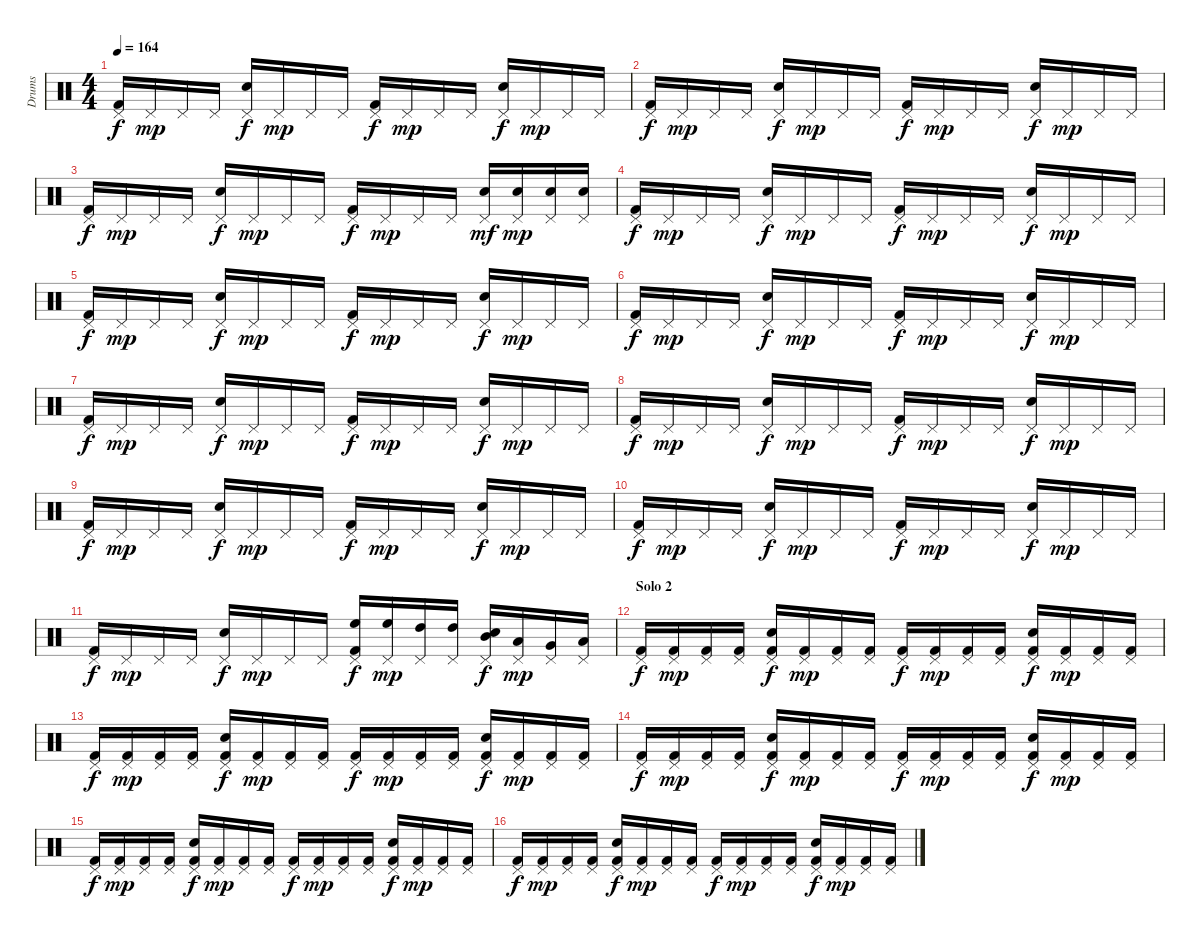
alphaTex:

\track ("Drums" "Drums") {instrument percussion}
\staff {score}
\articulation defaults
\ts (4 4)
\tempo 164
\clef neutral
\ks c
("Pedal Hi-Hat (hit)" "Kick (hit) 2").16{dy f} "Pedal Hi-Hat (hit)".16{dy mp} "Pedal Hi-Hat (hit)".16 "Pedal Hi-Hat (hit)".16 ("Pedal Hi-Hat (hit)" "Snare (hit) 2").16{dy f} "Pedal Hi-Hat (hit)".16{dy mp} "Pedal Hi-Hat (hit)".16 "Pedal Hi-Hat (hit)".16 ("Pedal Hi-Hat (hit)" "Kick (hit) 2").16{dy f} "Pedal Hi-Hat (hit)".16{dy mp} "Pedal Hi-Hat (hit)".16 "Pedal Hi-Hat (hit)".16 ("Pedal Hi-Hat (hit)" "Snare (hit) 2").16{dy f} "Pedal Hi-Hat (hit)".16{dy mp} "Pedal Hi-Hat (hit)".16 "Pedal Hi-Hat (hit)".16 |
("Pedal Hi-Hat (hit)" "Kick (hit) 2").16{dy f} "Pedal Hi-Hat (hit)".16{dy mp} "Pedal Hi-Hat (hit)".16 "Pedal Hi-Hat (hit)".16 ("Pedal Hi-Hat (hit)" "Snare (hit) 2").16{dy f} "Pedal Hi-Hat (hit)".16{dy mp} "Pedal Hi-Hat (hit)".16 "Pedal Hi-Hat (hit)".16 ("Pedal Hi-Hat (hit)" "Kick (hit) 2").16{dy f} "Pedal Hi-Hat (hit)".16{dy mp} "Pedal Hi-Hat (hit)".16 "Pedal Hi-Hat (hit)".16 ("Pedal Hi-Hat (hit)" "Snare (hit) 2").16{dy f} "Pedal Hi-Hat (hit)".16{dy mp} "Pedal Hi-Hat (hit)".16 "Pedal Hi-Hat (hit)".16 |
("Pedal Hi-Hat (hit)" "Kick (hit) 2").16{dy f} "Pedal Hi-Hat (hit)".16{dy mp} "Pedal Hi-Hat (hit)".16 "Pedal Hi-Hat (hit)".16 ("Pedal Hi-Hat (hit)" "Snare (hit) 2").16{dy f} "Pedal Hi-Hat (hit)".16{dy mp} "Pedal Hi-Hat (hit)".16 "Pedal Hi-Hat (hit)".16 ("Pedal Hi-Hat (hit)" "Kick (hit) 2").16{dy f} "Pedal Hi-Hat (hit)".16{dy mp} "Pedal Hi-Hat (hit)".16 "Pedal Hi-Hat (hit)".16 ("Pedal Hi-Hat (hit)" "Snare (hit) 2").16{dy mf} ("Pedal Hi-Hat (hit)" "Snare (hit) 2").16{dy mp} ("Pedal Hi-Hat (hit)" "Snare (hit) 2").16 ("Pedal Hi-Hat (hit)" "Snare (hit) 2").16 |
("Pedal Hi-Hat (hit)" "Kick (hit) 2").16{dy f} "Pedal Hi-Hat (hit)".16{dy mp} "Pedal Hi-Hat (hit)".16 "Pedal Hi-Hat (hit)".16 ("Pedal Hi-Hat (hit)" "Snare (hit) 2").16{dy f} "Pedal Hi-Hat (hit)".16{dy mp} "Pedal Hi-Hat (hit)".16 "Pedal Hi-Hat (hit)".16 ("Pedal Hi-Hat (hit)" "Kick (hit) 2").16{dy f} "Pedal Hi-Hat (hit)".16{dy mp} "Pedal Hi-Hat (hit)".16 "Pedal Hi-Hat (hit)".16 ("Pedal Hi-Hat (hit)" "Snare (hit) 2").16{dy f} "Pedal Hi-Hat (hit)".16{dy mp} "Pedal Hi-Hat (hit)".16 "Pedal Hi-Hat (hit)".16 |
("Pedal Hi-Hat (hit)" "Kick (hit) 2").16{dy f} "Pedal Hi-Hat (hit)".16{dy mp} "Pedal Hi-Hat (hit)".16 "Pedal Hi-Hat (hit)".16 ("Pedal Hi-Hat (hit)" "Snare (hit) 2").16{dy f} "Pedal Hi-Hat (hit)".16{dy mp} "Pedal Hi-Hat (hit)".16 "Pedal Hi-Hat (hit)".16 ("Pedal Hi-Hat (hit)" "Kick (hit) 2").16{dy f} "Pedal Hi-Hat (hit)".16{dy mp} "Pedal Hi-Hat (hit)".16 "Pedal Hi-Hat (hit)".16 ("Pedal Hi-Hat (hit)" "Snare (hit) 2").16{dy f} "Pedal Hi-Hat (hit)".16{dy mp} "Pedal Hi-Hat (hit)".16 "Pedal Hi-Hat (hit)".16 |
("Pedal Hi-Hat (hit)" "Kick (hit) 2").16{dy f} "Pedal Hi-Hat (hit)".16{dy mp} "Pedal Hi-Hat (hit)".16 "Pedal Hi-Hat (hit)".16 ("Pedal Hi-Hat (hit)" "Snare (hit) 2").16{dy f} "Pedal Hi-Hat (hit)".16{dy mp} "Pedal Hi-Hat (hit)".16 "Pedal Hi-Hat (hit)".16 ("Pedal Hi-Hat (hit)" "Kick (hit) 2").16{dy f} "Pedal Hi-Hat (hit)".16{dy mp} "Pedal Hi-Hat (hit)".16 "Pedal Hi-Hat (hit)".16 ("Pedal Hi-Hat (hit)" "Snare (hit) 2").16{dy f} "Pedal Hi-Hat (hit)".16{dy mp} "Pedal Hi-Hat (hit)".16 "Pedal Hi-Hat (hit)".16 |
("Pedal Hi-Hat (hit)" "Kick (hit) 2").16{dy f} "Pedal Hi-Hat (hit)".16{dy mp} "Pedal Hi-Hat (hit)".16 "Pedal Hi-Hat (hit)".16 ("Pedal Hi-Hat (hit)" "Snare (hit) 2").16{dy f} "Pedal Hi-Hat (hit)".16{dy mp} "Pedal Hi-Hat (hit)".16 "Pedal Hi-Hat (hit)".16 ("Pedal Hi-Hat (hit)" "Kick (hit) 2").16{dy f} "Pedal Hi-Hat (hit)".16{dy mp} "Pedal Hi-Hat (hit)".16 "Pedal Hi-Hat (hit)".16 ("Pedal Hi-Hat (hit)" "Snare (hit) 2").16{dy f} "Pedal Hi-Hat (hit)".16{dy mp} "Pedal Hi-Hat (hit)".16 "Pedal Hi-Hat (hit)".16 |
("Pedal Hi-Hat (hit)" "Kick (hit) 2").16{dy f} "Pedal Hi-Hat (hit)".16{dy mp} "Pedal Hi-Hat (hit)".16 "Pedal Hi-Hat (hit)".16 ("Pedal Hi-Hat (hit)" "Snare (hit) 2").16{dy f} "Pedal Hi-Hat (hit)".16{dy mp} "Pedal Hi-Hat (hit)".16 "Pedal Hi-Hat (hit)".16 ("Pedal Hi-Hat (hit)" "Kick (hit) 2").16{dy f} "Pedal Hi-Hat (hit)".16{dy mp} "Pedal Hi-Hat (hit)".16 "Pedal Hi-Hat (hit)".16 ("Pedal Hi-Hat (hit)" "Snare (hit) 2").16{dy f} "Pedal Hi-Hat (hit)".16{dy mp} "Pedal Hi-Hat (hit)".16 "Pedal Hi-Hat (hit)".16 |
("Pedal Hi-Hat (hit)" "Kick (hit) 2").16{dy f} "Pedal Hi-Hat (hit)".16{dy mp} "Pedal Hi-Hat (hit)".16 "Pedal Hi-Hat (hit)".16 ("Pedal Hi-Hat (hit)" "Snare (hit) 2").16{dy f} "Pedal Hi-Hat (hit)".16{dy mp} "Pedal Hi-Hat (hit)".16 "Pedal Hi-Hat (hit)".16 ("Pedal Hi-Hat (hit)" "Kick (hit) 2").16{dy f} "Pedal Hi-Hat (hit)".16{dy mp} "Pedal Hi-Hat (hit)".16 "Pedal Hi-Hat (hit)".16 ("Pedal Hi-Hat (hit)" "Snare (hit) 2").16{dy f} "Pedal Hi-Hat (hit)".16{dy mp} "Pedal Hi-Hat (hit)".16 "Pedal Hi-Hat (hit)".16 |
("Pedal Hi-Hat (hit)" "Kick (hit) 2").16{dy f} "Pedal Hi-Hat (hit)".16{dy mp} "Pedal Hi-Hat (hit)".16 "Pedal Hi-Hat (hit)".16 ("Pedal Hi-Hat (hit)" "Snare (hit) 2").16{dy f} "Pedal Hi-Hat (hit)".16{dy mp} "Pedal Hi-Hat (hit)".16 "Pedal Hi-Hat (hit)".16 ("Pedal Hi-Hat (hit)" "Kick (hit) 2").16{dy f} "Pedal Hi-Hat (hit)".16{dy mp} "Pedal Hi-Hat (hit)".16 "Pedal Hi-Hat (hit)".16 ("Pedal Hi-Hat (hit)" "Snare (hit) 2").16{dy f} "Pedal Hi-Hat (hit)".16{dy mp} "Pedal Hi-Hat (hit)".16 "Pedal Hi-Hat (hit)".16 |
("Pedal Hi-Hat (hit)" "Kick (hit) 2").16{dy f} "Pedal Hi-Hat (hit)".16{dy mp} "Pedal Hi-Hat (hit)".16 "Pedal Hi-Hat (hit)".16 ("Pedal Hi-Hat (hit)" "Snare (hit) 2").16{dy f} "Pedal Hi-Hat (hit)".16{dy mp} "Pedal Hi-Hat (hit)".16 "Pedal Hi-Hat (hit)".16 ("Pedal Hi-Hat (hit)" "High Floor Tom (hit)" "Kick (hit) 2").16{dy f} ("Pedal Hi-Hat (hit)" "High Floor Tom (hit)").16{dy mp} ("Pedal Hi-Hat (hit)" "High Tom (hit)").16 ("Pedal Hi-Hat (hit)" "High Tom (hit)").16 ("Pedal Hi-Hat (hit)" "Mid Tom (hit)" "Snare (hit) 2").16{dy f} ("Pedal Hi-Hat (hit)" "Low Tom (hit)").16{dy mp} ("Pedal Hi-Hat (hit)" "Very Low Tom (hit)").16 ("Pedal Hi-Hat (hit)" "Low Floor Tom (hit)").16 |
\section ("" "Solo 2")
("Pedal Hi-Hat (hit)" "Kick (hit) 2").16{dy f} ("Pedal Hi-Hat (hit)" "Kick (hit) 2").16{dy mp} ("Pedal Hi-Hat (hit)" "Kick (hit) 2").16 ("Pedal Hi-Hat (hit)" "Kick (hit) 2").16 ("Pedal Hi-Hat (hit)" "Snare (hit) 2" "Kick (hit) 2").16{dy f} ("Pedal Hi-Hat (hit)" "Kick (hit) 2").16{dy mp} ("Pedal Hi-Hat (hit)" "Kick (hit) 2").16 ("Pedal Hi-Hat (hit)" "Kick (hit) 2").16 ("Pedal Hi-Hat (hit)" "Kick (hit) 2").16{dy f} ("Pedal Hi-Hat (hit)" "Kick (hit) 2").16{dy mp} ("Pedal Hi-Hat (hit)" "Kick (hit) 2").16 ("Pedal Hi-Hat (hit)" "Kick (hit) 2").16 ("Pedal Hi-Hat (hit)" "Snare (hit) 2" "Kick (hit) 2").16{dy f} ("Pedal Hi-Hat (hit)" "Kick (hit) 2").16{dy mp} ("Pedal Hi-Hat (hit)" "Kick (hit) 2").16 ("Pedal Hi-Hat (hit)" "Kick (hit) 2").16 |
("Pedal Hi-Hat (hit)" "Kick (hit) 2").16{dy f} ("Pedal Hi-Hat (hit)" "Kick (hit) 2").16{dy mp} ("Pedal Hi-Hat (hit)" "Kick (hit) 2").16 ("Pedal Hi-Hat (hit)" "Kick (hit) 2").16 ("Pedal Hi-Hat (hit)" "Snare (hit) 2" "Kick (hit) 2").16{dy f} ("Pedal Hi-Hat (hit)" "Kick (hit) 2").16{dy mp} ("Pedal Hi-Hat (hit)" "Kick (hit) 2").16 ("Pedal Hi-Hat (hit)" "Kick (hit) 2").16 ("Pedal Hi-Hat (hit)" "Kick (hit) 2").16{dy f} ("Pedal Hi-Hat (hit)" "Kick (hit) 2").16{dy mp} ("Pedal Hi-Hat (hit)" "Kick (hit) 2").16 ("Pedal Hi-Hat (hit)" "Kick (hit) 2").16 ("Pedal Hi-Hat (hit)" "Snare (hit) 2" "Kick (hit) 2").16{dy f} ("Pedal Hi-Hat (hit)" "Kick (hit) 2").16{dy mp} ("Pedal Hi-Hat (hit)" "Kick (hit) 2").16 ("Pedal Hi-Hat (hit)" "Kick (hit) 2").16 |
("Pedal Hi-Hat (hit)" "Kick (hit) 2").16{dy f} ("Pedal Hi-Hat (hit)" "Kick (hit) 2").16{dy mp} ("Pedal Hi-Hat (hit)" "Kick (hit) 2").16 ("Pedal Hi-Hat (hit)" "Kick (hit) 2").16 ("Pedal Hi-Hat (hit)" "Snare (hit) 2" "Kick (hit) 2").16{dy f} ("Pedal Hi-Hat (hit)" "Kick (hit) 2").16{dy mp} ("Pedal Hi-Hat (hit)" "Kick (hit) 2").16 ("Pedal Hi-Hat (hit)" "Kick (hit) 2").16 ("Pedal Hi-Hat (hit)" "Kick (hit) 2").16{dy f} ("Pedal Hi-Hat (hit)" "Kick (hit) 2").16{dy mp} ("Pedal Hi-Hat (hit)" "Kick (hit) 2").16 ("Pedal Hi-Hat (hit)" "Kick (hit) 2").16 ("Pedal Hi-Hat (hit)" "Snare (hit) 2" "Kick (hit) 2").16{dy f} ("Pedal Hi-Hat (hit)" "Kick (hit) 2").16{dy mp} ("Pedal Hi-Hat (hit)" "Kick (hit) 2").16 ("Pedal Hi-Hat (hit)" "Kick (hit) 2").16 |
("Pedal Hi-Hat (hit)" "Kick (hit) 2").16{dy f} ("Pedal Hi-Hat (hit)" "Kick (hit) 2").16{dy mp} ("Pedal Hi-Hat (hit)" "Kick (hit) 2").16 ("Pedal Hi-Hat (hit)" "Kick (hit) 2").16 ("Pedal Hi-Hat (hit)" "Snare (hit) 2" "Kick (hit) 2").16{dy f} ("Pedal Hi-Hat (hit)" "Kick (hit) 2").16{dy mp} ("Pedal Hi-Hat (hit)" "Kick (hit) 2").16 ("Pedal Hi-Hat (hit)" "Kick (hit) 2").16 ("Pedal Hi-Hat (hit)" "Kick (hit) 2").16{dy f} ("Pedal Hi-Hat (hit)" "Kick (hit) 2").16{dy mp} ("Pedal Hi-Hat (hit)" "Kick (hit) 2").16 ("Pedal Hi-Hat (hit)" "Kick (hit) 2").16 ("Pedal Hi-Hat (hit)" "Snare (hit) 2" "Kick (hit) 2").16{dy f} ("Pedal Hi-Hat (hit)" "Kick (hit) 2").16{dy mp} ("Pedal Hi-Hat (hit)" "Kick (hit) 2").16 ("Pedal Hi-Hat (hit)" "Kick (hit) 2").16 |
("Pedal Hi-Hat (hit)" "Kick (hit) 2").16{dy f} ("Pedal Hi-Hat (hit)" "Kick (hit) 2").16{dy mp} ("Pedal Hi-Hat (hit)" "Kick (hit) 2").16 ("Pedal Hi-Hat (hit)" "Kick (hit) 2").16 ("Pedal Hi-Hat (hit)" "Snare (hit) 2" "Kick (hit) 2").16{dy f} ("Pedal Hi-Hat (hit)" "Kick (hit) 2").16{dy mp} ("Pedal Hi-Hat (hit)" "Kick (hit) 2").16 ("Pedal Hi-Hat (hit)" "Kick (hit) 2").16 ("Pedal Hi-Hat (hit)" "Kick (hit) 2").16{dy f} ("Pedal Hi-Hat (hit)" "Kick (hit) 2").16{dy mp} ("Pedal Hi-Hat (hit)" "Kick (hit) 2").16 ("Pedal Hi-Hat (hit)" "Kick (hit) 2").16 ("Pedal Hi-Hat (hit)" "Snare (hit) 2" "Kick (hit) 2").16{dy f} ("Pedal Hi-Hat (hit)" "Kick (hit) 2").16{dy mp} ("Pedal Hi-Hat (hit)" "Kick (hit) 2").16 ("Pedal Hi-Hat (hit)" "Kick (hit) 2").16
